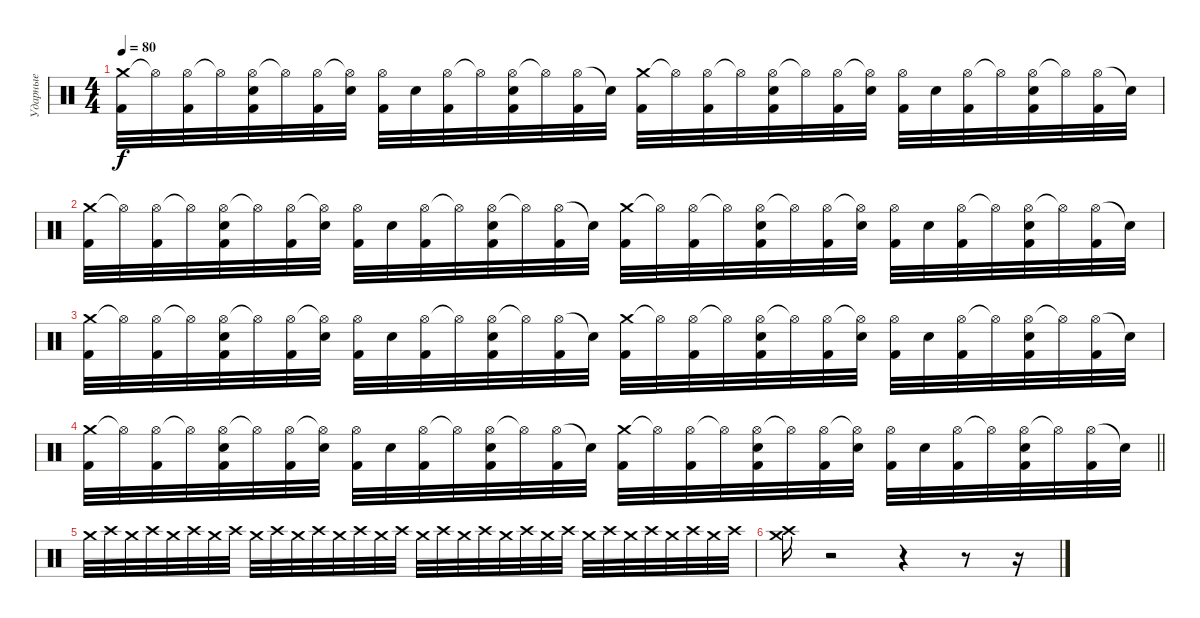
\track ("Ударные" "Ударные") {instrument percussion}
\staff {score}
\articulation defaults
\ts (4 4)
\tempo 80
\clef neutral
\ks c
("Crash medium (hit)" "Kick (hit) 2").32{dy f} "Hi-Hat (open)"{t}.32 ("Hi-Hat (open)" "Kick (hit) 2").32 "Hi-Hat (open)"{t}.32 ("Hi-Hat (open)" "Snare (hit) 2" "Kick (hit) 2").32 "Hi-Hat (open)"{t}.32 ("Hi-Hat (open)" "Kick (hit) 2").32 ("Hi-Hat (open)"{t} "Snare (hit) 2").32 ("Hi-Hat (open)" "Kick (hit) 2").32 "Snare (hit) 2".32 ("Hi-Hat (open)" "Kick (hit) 2").32 "Hi-Hat (open)"{t}.32 ("Hi-Hat (open)" "Snare (hit) 2" "Kick (hit) 2").32 "Hi-Hat (open)"{t}.32 ("Hi-Hat (open)" "Kick (hit) 2").32 "Snare (hit)"{t}.32 ("Crash medium (hit)" "Kick (hit) 2").32 "Hi-Hat (open)"{t}.32 ("Hi-Hat (open)" "Kick (hit) 2").32 "Hi-Hat (open)"{t}.32 ("Hi-Hat (open)" "Snare (hit) 2" "Kick (hit) 2").32 "Hi-Hat (open)"{t}.32 ("Hi-Hat (open)" "Kick (hit) 2").32 ("Hi-Hat (open)"{t} "Snare (hit) 2").32 ("Hi-Hat (open)" "Kick (hit) 2").32 "Snare (hit) 2".32 ("Hi-Hat (open)" "Kick (hit) 2").32 "Hi-Hat (open)"{t}.32 ("Hi-Hat (open)" "Snare (hit) 2" "Kick (hit) 2").32 "Hi-Hat (open)"{t}.32 ("Hi-Hat (open)" "Kick (hit) 2").32 "Snare (hit)"{t}.32 |
("Crash medium (hit)" "Kick (hit) 2").32 "Hi-Hat (open)"{t}.32 ("Hi-Hat (open)" "Kick (hit) 2").32 "Hi-Hat (open)"{t}.32 ("Hi-Hat (open)" "Snare (hit) 2" "Kick (hit) 2").32 "Hi-Hat (open)"{t}.32 ("Hi-Hat (open)" "Kick (hit) 2").32 ("Hi-Hat (open)"{t} "Snare (hit) 2").32 ("Hi-Hat (open)" "Kick (hit) 2").32 "Snare (hit) 2".32 ("Hi-Hat (open)" "Kick (hit) 2").32 "Hi-Hat (open)"{t}.32 ("Hi-Hat (open)" "Snare (hit) 2" "Kick (hit) 2").32 "Hi-Hat (open)"{t}.32 ("Hi-Hat (open)" "Kick (hit) 2").32 "Snare (hit)"{t}.32 ("Crash medium (hit)" "Kick (hit) 2").32 "Hi-Hat (open)"{t}.32 ("Hi-Hat (open)" "Kick (hit) 2").32 "Hi-Hat (open)"{t}.32 ("Hi-Hat (open)" "Snare (hit) 2" "Kick (hit) 2").32 "Hi-Hat (open)"{t}.32 ("Hi-Hat (open)" "Kick (hit) 2").32 ("Hi-Hat (open)"{t} "Snare (hit) 2").32 ("Hi-Hat (open)" "Kick (hit) 2").32 "Snare (hit) 2".32 ("Hi-Hat (open)" "Kick (hit) 2").32 "Hi-Hat (open)"{t}.32 ("Hi-Hat (open)" "Snare (hit) 2" "Kick (hit) 2").32 "Hi-Hat (open)"{t}.32 ("Hi-Hat (open)" "Kick (hit) 2").32 "Snare (hit)"{t}.32 |
("Crash medium (hit)" "Kick (hit) 2").32 "Hi-Hat (open)"{t}.32 ("Hi-Hat (open)" "Kick (hit) 2").32 "Hi-Hat (open)"{t}.32 ("Hi-Hat (open)" "Snare (hit) 2" "Kick (hit) 2").32 "Hi-Hat (open)"{t}.32 ("Hi-Hat (open)" "Kick (hit) 2").32 ("Hi-Hat (open)"{t} "Snare (hit) 2").32 ("Hi-Hat (open)" "Kick (hit) 2").32 "Snare (hit) 2".32 ("Hi-Hat (open)" "Kick (hit) 2").32 "Hi-Hat (open)"{t}.32 ("Hi-Hat (open)" "Snare (hit) 2" "Kick (hit) 2").32 "Hi-Hat (open)"{t}.32 ("Hi-Hat (open)" "Kick (hit) 2").32 "Snare (hit)"{t}.32 ("Crash medium (hit)" "Kick (hit) 2").32 "Hi-Hat (open)"{t}.32 ("Hi-Hat (open)" "Kick (hit) 2").32 "Hi-Hat (open)"{t}.32 ("Hi-Hat (open)" "Snare (hit) 2" "Kick (hit) 2").32 "Hi-Hat (open)"{t}.32 ("Hi-Hat (open)" "Kick (hit) 2").32 ("Hi-Hat (open)"{t} "Snare (hit) 2").32 ("Hi-Hat (open)" "Kick (hit) 2").32 "Snare (hit) 2".32 ("Hi-Hat (open)" "Kick (hit) 2").32 "Hi-Hat (open)"{t}.32 ("Hi-Hat (open)" "Snare (hit) 2" "Kick (hit) 2").32 "Hi-Hat (open)"{t}.32 ("Hi-Hat (open)" "Kick (hit) 2").32 "Snare (hit)"{t}.32 |
\barLineRight lightlight
("Crash medium (hit)" "Kick (hit) 2").32 "Hi-Hat (open)"{t}.32 ("Hi-Hat (open)" "Kick (hit) 2").32 "Hi-Hat (open)"{t}.32 ("Hi-Hat (open)" "Snare (hit) 2" "Kick (hit) 2").32 "Hi-Hat (open)"{t}.32 ("Hi-Hat (open)" "Kick (hit) 2").32 ("Hi-Hat (open)"{t} "Snare (hit) 2").32 ("Hi-Hat (open)" "Kick (hit) 2").32 "Snare (hit) 2".32 ("Hi-Hat (open)" "Kick (hit) 2").32 "Hi-Hat (open)"{t}.32 ("Hi-Hat (open)" "Snare (hit) 2" "Kick (hit) 2").32 "Hi-Hat (open)"{t}.32 ("Hi-Hat (open)" "Kick (hit) 2").32 "Snare (hit)"{t}.32 ("Crash medium (hit)" "Kick (hit) 2").32 "Hi-Hat (open)"{t}.32 ("Hi-Hat (open)" "Kick (hit) 2").32 "Hi-Hat (open)"{t}.32 ("Hi-Hat (open)" "Snare (hit) 2" "Kick (hit) 2").32 "Hi-Hat (open)"{t}.32 ("Hi-Hat (open)" "Kick (hit) 2").32 ("Hi-Hat (open)"{t} "Snare (hit) 2").32 ("Hi-Hat (open)" "Kick (hit) 2").32 "Snare (hit) 2".32 ("Hi-Hat (open)" "Kick (hit) 2").32 "Hi-Hat (open)"{t}.32 ("Hi-Hat (open)" "Snare (hit) 2" "Kick (hit) 2").32 "Hi-Hat (open)"{t}.32 ("Hi-Hat (open)" "Kick (hit) 2").32 "Snare (hit)"{t}.32 |
"Crash medium (hit)".32 "Crash high (hit)".32 "Crash medium (hit)".32 "Crash high (hit)".32 "Crash medium (hit)".32 "Crash high (hit)".32 "Crash medium (hit)".32 "Crash high (hit)".32 "Crash medium (hit)".32 "Crash high (hit)".32 "Crash medium (hit)".32 "Crash high (hit)".32 "Crash medium (hit)".32 "Crash high (hit)".32 "Crash medium (hit)".32 "Crash high (hit)".32 "Crash medium (hit)".32 "Crash high (hit)".32 "Crash medium (hit)".32 "Crash high (hit)".32 "Crash medium (hit)".32 "Crash high (hit)".32 "Crash medium (hit)".32 "Crash high (hit)".32 "Crash medium (hit)".32 "Crash high (hit)".32 "Crash medium (hit)".32 "Crash high (hit)".32 "Crash medium (hit)".32 "Crash high (hit)".32 "Crash medium (hit)".32 "Crash high (hit)".32 |
("Crash high (hit)" "Crash medium (hit)").16 r.2 r.4 r.8 r.16
